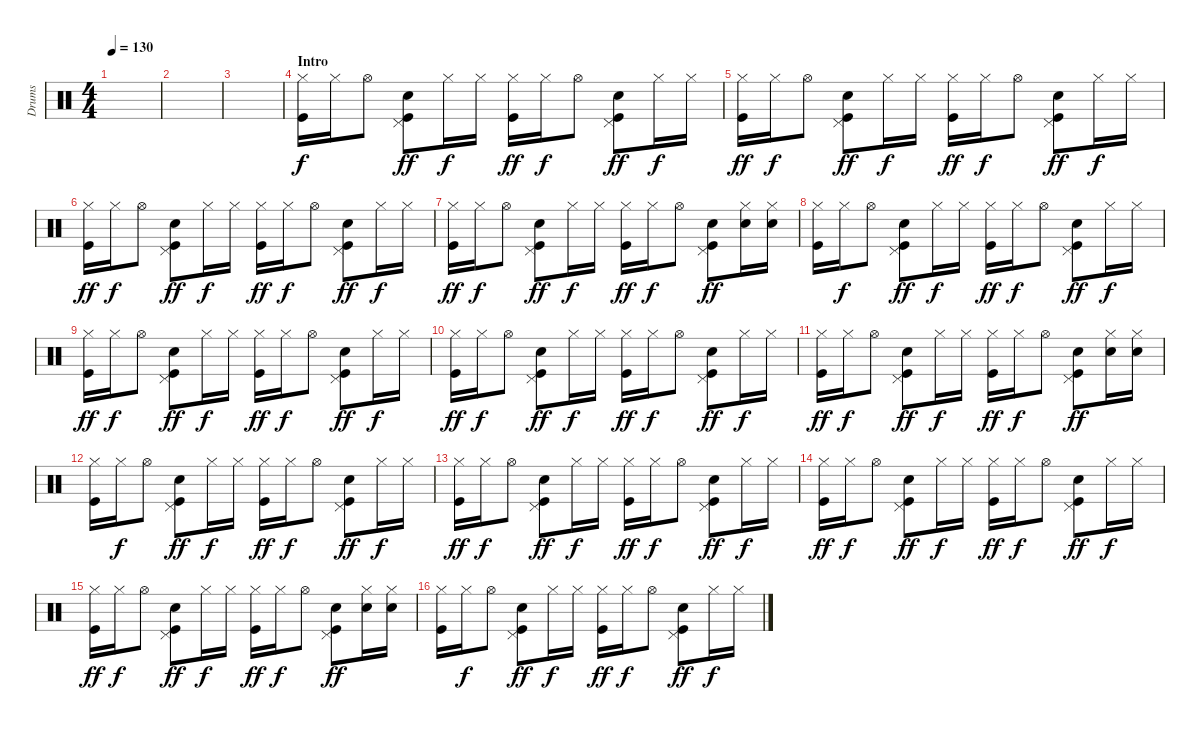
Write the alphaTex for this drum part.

\track ("Drums" "Drums") {instrument percussion}
\staff {score}
\articulation defaults
\ts (4 4)
\tempo 130
\clef neutral
\ks c
|
|
|
\section ("" "Intro")
("Hi-Hat (closed)" "Kick (hit)").16 "Hi-Hat (closed)".16{dy f} "Hi-Hat (open)".8 ("Pedal Hi-Hat (hit)" "Electric Snare (hit)" "Kick (hit)").8{dy ff} "Hi-Hat (closed)".16{dy f} "Hi-Hat (closed)".16 ("Hi-Hat (closed)" "Kick (hit)").16{dy ff} "Hi-Hat (closed)".16{dy f} "Hi-Hat (open)".8 ("Pedal Hi-Hat (hit)" "Electric Snare (hit)" "Kick (hit)").8{dy ff} "Hi-Hat (closed)".16{dy f} "Hi-Hat (closed)".16 |
("Hi-Hat (closed)" "Kick (hit)").16{dy ff} "Hi-Hat (closed)".16{dy f} "Hi-Hat (open)".8 ("Pedal Hi-Hat (hit)" "Electric Snare (hit)" "Kick (hit)").8{dy ff} "Hi-Hat (closed)".16{dy f} "Hi-Hat (closed)".16 ("Hi-Hat (closed)" "Kick (hit)").16{dy ff} "Hi-Hat (closed)".16{dy f} "Hi-Hat (open)".8 ("Pedal Hi-Hat (hit)" "Electric Snare (hit)" "Kick (hit)").8{dy ff} "Hi-Hat (closed)".16{dy f} "Hi-Hat (closed)".16 |
("Hi-Hat (closed)" "Kick (hit)").16{dy ff} "Hi-Hat (closed)".16{dy f} "Hi-Hat (open)".8 ("Pedal Hi-Hat (hit)" "Electric Snare (hit)" "Kick (hit)").8{dy ff} "Hi-Hat (closed)".16{dy f} "Hi-Hat (closed)".16 ("Hi-Hat (closed)" "Kick (hit)").16{dy ff} "Hi-Hat (closed)".16{dy f} "Hi-Hat (open)".8 ("Pedal Hi-Hat (hit)" "Electric Snare (hit)" "Kick (hit)").8{dy ff} "Hi-Hat (closed)".16{dy f} "Hi-Hat (closed)".16 |
("Hi-Hat (closed)" "Kick (hit)").16{dy ff} "Hi-Hat (closed)".16{dy f} "Hi-Hat (open)".8 ("Pedal Hi-Hat (hit)" "Electric Snare (hit)" "Kick (hit)").8{dy ff} "Hi-Hat (closed)".16{dy f} "Hi-Hat (closed)".16 ("Hi-Hat (closed)" "Kick (hit)").16{dy ff} "Hi-Hat (closed)".16{dy f} "Hi-Hat (open)".8 ("Pedal Hi-Hat (hit)" "Electric Snare (hit)" "Kick (hit)").8{dy ff} ("Hi-Hat (closed)" "Electric Snare (hit)").16 ("Hi-Hat (closed)" "Electric Snare (hit)").16 |
("Hi-Hat (closed)" "Kick (hit)").16 "Hi-Hat (closed)".16{dy f} "Hi-Hat (open)".8 ("Pedal Hi-Hat (hit)" "Electric Snare (hit)" "Kick (hit)").8{dy ff} "Hi-Hat (closed)".16{dy f} "Hi-Hat (closed)".16 ("Hi-Hat (closed)" "Kick (hit)").16{dy ff} "Hi-Hat (closed)".16{dy f} "Hi-Hat (open)".8 ("Pedal Hi-Hat (hit)" "Electric Snare (hit)" "Kick (hit)").8{dy ff} "Hi-Hat (closed)".16{dy f} "Hi-Hat (closed)".16 |
("Hi-Hat (closed)" "Kick (hit)").16{dy ff} "Hi-Hat (closed)".16{dy f} "Hi-Hat (open)".8 ("Pedal Hi-Hat (hit)" "Electric Snare (hit)" "Kick (hit)").8{dy ff} "Hi-Hat (closed)".16{dy f} "Hi-Hat (closed)".16 ("Hi-Hat (closed)" "Kick (hit)").16{dy ff} "Hi-Hat (closed)".16{dy f} "Hi-Hat (open)".8 ("Pedal Hi-Hat (hit)" "Electric Snare (hit)" "Kick (hit)").8{dy ff} "Hi-Hat (closed)".16{dy f} "Hi-Hat (closed)".16 |
("Hi-Hat (closed)" "Kick (hit)").16{dy ff} "Hi-Hat (closed)".16{dy f} "Hi-Hat (open)".8 ("Pedal Hi-Hat (hit)" "Electric Snare (hit)" "Kick (hit)").8{dy ff} "Hi-Hat (closed)".16{dy f} "Hi-Hat (closed)".16 ("Hi-Hat (closed)" "Kick (hit)").16{dy ff} "Hi-Hat (closed)".16{dy f} "Hi-Hat (open)".8 ("Pedal Hi-Hat (hit)" "Electric Snare (hit)" "Kick (hit)").8{dy ff} "Hi-Hat (closed)".16{dy f} "Hi-Hat (closed)".16 |
("Hi-Hat (closed)" "Kick (hit)").16{dy ff} "Hi-Hat (closed)".16{dy f} "Hi-Hat (open)".8 ("Pedal Hi-Hat (hit)" "Electric Snare (hit)" "Kick (hit)").8{dy ff} "Hi-Hat (closed)".16{dy f} "Hi-Hat (closed)".16 ("Hi-Hat (closed)" "Kick (hit)").16{dy ff} "Hi-Hat (closed)".16{dy f} "Hi-Hat (open)".8 ("Pedal Hi-Hat (hit)" "Electric Snare (hit)" "Kick (hit)").8{dy ff} ("Hi-Hat (closed)" "Electric Snare (hit)").16 ("Hi-Hat (closed)" "Electric Snare (hit)").16 |
("Hi-Hat (closed)" "Kick (hit)").16 "Hi-Hat (closed)".16{dy f} "Hi-Hat (open)".8 ("Pedal Hi-Hat (hit)" "Electric Snare (hit)" "Kick (hit)").8{dy ff} "Hi-Hat (closed)".16{dy f} "Hi-Hat (closed)".16 ("Hi-Hat (closed)" "Kick (hit)").16{dy ff} "Hi-Hat (closed)".16{dy f} "Hi-Hat (open)".8 ("Pedal Hi-Hat (hit)" "Electric Snare (hit)" "Kick (hit)").8{dy ff} "Hi-Hat (closed)".16{dy f} "Hi-Hat (closed)".16 |
("Hi-Hat (closed)" "Kick (hit)").16{dy ff} "Hi-Hat (closed)".16{dy f} "Hi-Hat (open)".8 ("Pedal Hi-Hat (hit)" "Electric Snare (hit)" "Kick (hit)").8{dy ff} "Hi-Hat (closed)".16{dy f} "Hi-Hat (closed)".16 ("Hi-Hat (closed)" "Kick (hit)").16{dy ff} "Hi-Hat (closed)".16{dy f} "Hi-Hat (open)".8 ("Pedal Hi-Hat (hit)" "Electric Snare (hit)" "Kick (hit)").8{dy ff} "Hi-Hat (closed)".16{dy f} "Hi-Hat (closed)".16 |
("Hi-Hat (closed)" "Kick (hit)").16{dy ff} "Hi-Hat (closed)".16{dy f} "Hi-Hat (open)".8 ("Pedal Hi-Hat (hit)" "Electric Snare (hit)" "Kick (hit)").8{dy ff} "Hi-Hat (closed)".16{dy f} "Hi-Hat (closed)".16 ("Hi-Hat (closed)" "Kick (hit)").16{dy ff} "Hi-Hat (closed)".16{dy f} "Hi-Hat (open)".8 ("Pedal Hi-Hat (hit)" "Electric Snare (hit)" "Kick (hit)").8{dy ff} "Hi-Hat (closed)".16{dy f} "Hi-Hat (closed)".16 |
("Hi-Hat (closed)" "Kick (hit)").16{dy ff} "Hi-Hat (closed)".16{dy f} "Hi-Hat (open)".8 ("Pedal Hi-Hat (hit)" "Electric Snare (hit)" "Kick (hit)").8{dy ff} "Hi-Hat (closed)".16{dy f} "Hi-Hat (closed)".16 ("Hi-Hat (closed)" "Kick (hit)").16{dy ff} "Hi-Hat (closed)".16{dy f} "Hi-Hat (open)".8 ("Pedal Hi-Hat (hit)" "Electric Snare (hit)" "Kick (hit)").8{dy ff} ("Hi-Hat (closed)" "Electric Snare (hit)").16 ("Hi-Hat (closed)" "Electric Snare (hit)").16 |
("Hi-Hat (closed)" "Kick (hit)").16 "Hi-Hat (closed)".16{dy f} "Hi-Hat (open)".8 ("Pedal Hi-Hat (hit)" "Electric Snare (hit)" "Kick (hit)").8{dy ff} "Hi-Hat (closed)".16{dy f} "Hi-Hat (closed)".16 ("Hi-Hat (closed)" "Kick (hit)").16{dy ff} "Hi-Hat (closed)".16{dy f} "Hi-Hat (open)".8 ("Pedal Hi-Hat (hit)" "Electric Snare (hit)" "Kick (hit)").8{dy ff} "Hi-Hat (closed)".16{dy f} "Hi-Hat (closed)".16
